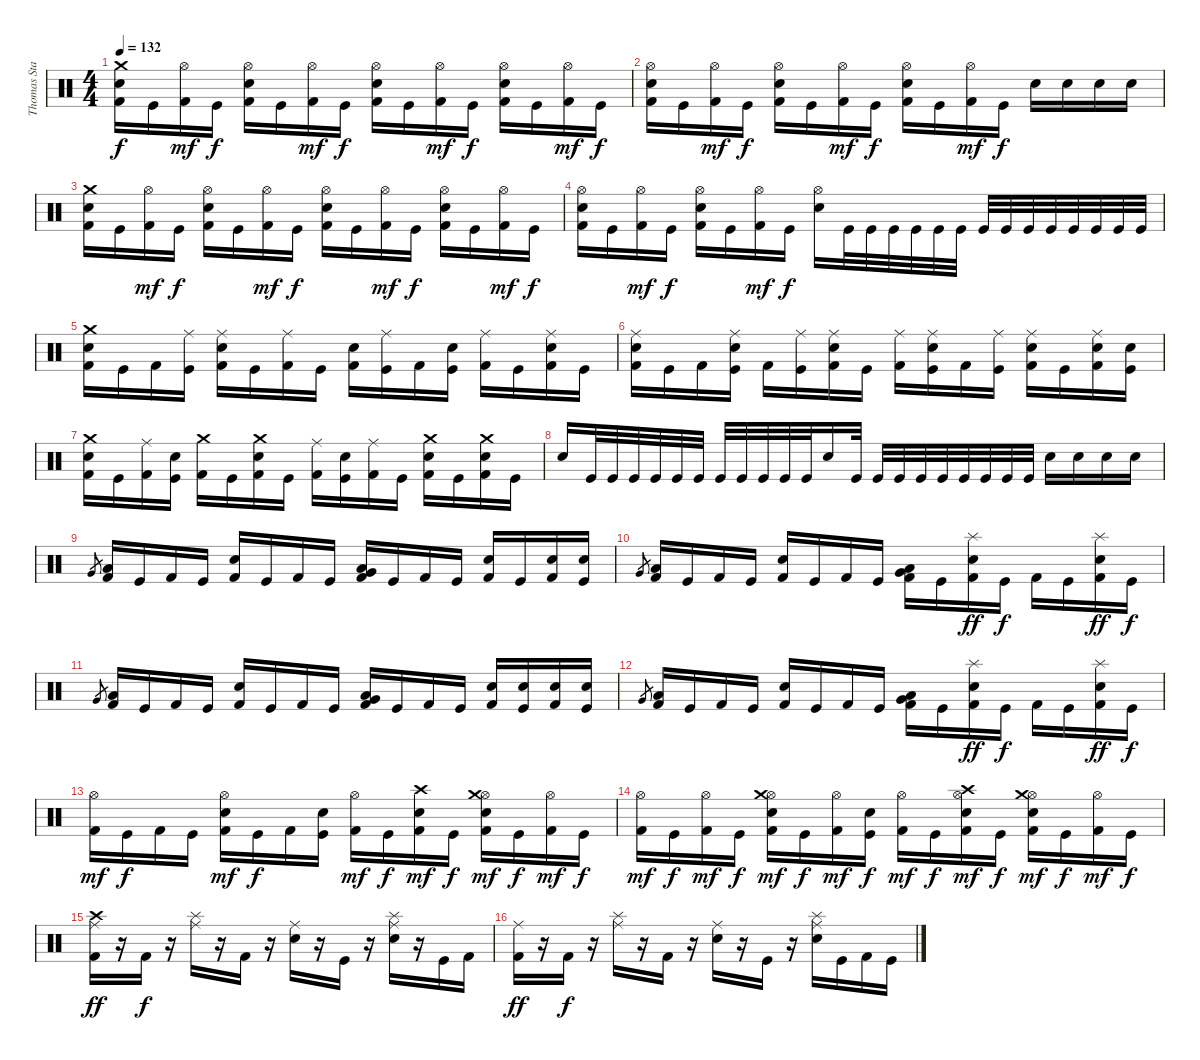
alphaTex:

\track ("Thomas Stauch" "Thomas Sta") {instrument percussion}
\staff {score}
\articulation defaults
\ts (4 4)
\tempo 132
\clef neutral
\ks c
("Crash medium (hit)" "Electric Snare (hit)" "Kick (hit) 2").16{dy f} "Kick (hit)".16 ("Hi-Hat (open)" "Kick (hit) 2").16{dy mf} "Kick (hit)".16{dy f} ("Hi-Hat (open)" "Electric Snare (hit)" "Kick (hit) 2").16 "Kick (hit)".16 ("Hi-Hat (open)" "Kick (hit) 2").16{dy mf} "Kick (hit)".16{dy f} ("Hi-Hat (open)" "Electric Snare (hit)" "Kick (hit) 2").16 "Kick (hit)".16 ("Hi-Hat (open)" "Kick (hit) 2").16{dy mf} "Kick (hit)".16{dy f} ("Hi-Hat (open)" "Electric Snare (hit)" "Kick (hit) 2").16 "Kick (hit)".16 ("Hi-Hat (open)" "Kick (hit) 2").16{dy mf} "Kick (hit)".16{dy f} |
("Hi-Hat (open)" "Electric Snare (hit)" "Kick (hit) 2").16 "Kick (hit)".16 ("Hi-Hat (open)" "Kick (hit) 2").16{dy mf} "Kick (hit)".16{dy f} ("Hi-Hat (open)" "Electric Snare (hit)" "Kick (hit) 2").16 "Kick (hit)".16 ("Hi-Hat (open)" "Kick (hit) 2").16{dy mf} "Kick (hit)".16{dy f} ("Hi-Hat (open)" "Electric Snare (hit)" "Kick (hit) 2").16 "Kick (hit)".16 ("Hi-Hat (open)" "Kick (hit) 2").16{dy mf} "Kick (hit)".16{dy f} "Electric Snare (hit)".16 "Electric Snare (hit)".16 "Electric Snare (hit)".16 "Electric Snare (hit)".16 |
("Crash medium (hit)" "Electric Snare (hit)" "Kick (hit) 2").16 "Kick (hit)".16 ("Hi-Hat (open)" "Kick (hit) 2").16{dy mf} "Kick (hit)".16{dy f} ("Hi-Hat (open)" "Electric Snare (hit)" "Kick (hit) 2").16 "Kick (hit)".16 ("Hi-Hat (open)" "Kick (hit) 2").16{dy mf} "Kick (hit)".16{dy f} ("Hi-Hat (open)" "Electric Snare (hit)" "Kick (hit) 2").16 "Kick (hit)".16 ("Hi-Hat (open)" "Kick (hit) 2").16{dy mf} "Kick (hit)".16{dy f} ("Hi-Hat (open)" "Electric Snare (hit)" "Kick (hit) 2").16 "Kick (hit)".16 ("Hi-Hat (open)" "Kick (hit) 2").16{dy mf} "Kick (hit)".16{dy f} |
("Hi-Hat (open)" "Electric Snare (hit)" "Kick (hit) 2").16 "Kick (hit)".16 ("Hi-Hat (open)" "Kick (hit) 2").16{dy mf} "Kick (hit)".16{dy f} ("Hi-Hat (open)" "Electric Snare (hit)" "Kick (hit) 2").16 "Kick (hit)".16 ("Hi-Hat (open)" "Kick (hit) 2").16{dy mf} "Kick (hit)".16{dy f} ("Hi-Hat (open)" "Electric Snare (hit)").16 "Kick (hit)".32 "Kick (hit)".32 "Kick (hit)".32 "Kick (hit)".32 "Kick (hit)".32 "Kick (hit)".32 "Kick (hit)".32 "Kick (hit)".32 "Kick (hit)".32 "Kick (hit)".32 "Kick (hit)".32 "Kick (hit)".32 "Kick (hit)".32 "Kick (hit)".32 |
("Crash medium (hit)" "Electric Snare (hit)" "Kick (hit) 2").16 "Kick (hit)".16 "Kick (hit) 2".16 ("Ride (middle)" "Kick (hit)").16 ("Ride (middle)" "Electric Snare (hit)" "Kick (hit) 2").16 "Kick (hit)".16 ("Ride (middle)" "Kick (hit) 2").16 "Kick (hit)".16 ("Electric Snare (hit)" "Kick (hit) 2").16 ("Ride (middle)" "Kick (hit)").16 "Kick (hit) 2".16 ("Electric Snare (hit)" "Kick (hit)").16 ("Ride (middle)" "Kick (hit) 2").16 "Kick (hit)".16 ("Ride (middle)" "Electric Snare (hit)" "Kick (hit) 2").16 "Kick (hit)".16 |
("Ride (middle)" "Electric Snare (hit)" "Kick (hit) 2").16 "Kick (hit)".16 "Kick (hit) 2".16 ("Ride (middle)" "Electric Snare (hit)" "Kick (hit)").16 "Kick (hit) 2".16 ("Ride (middle)" "Kick (hit)").16 ("Ride (middle)" "Electric Snare (hit)" "Kick (hit) 2").16 "Kick (hit)".16 ("Ride (middle)" "Kick (hit) 2").16 ("Ride (middle)" "Electric Snare (hit)" "Kick (hit)").16 "Kick (hit) 2".16 ("Ride (middle)" "Kick (hit)").16 ("Ride (middle)" "Electric Snare (hit)" "Kick (hit) 2").16 "Kick (hit)".16 ("Ride (middle)" "Electric Snare (hit)" "Kick (hit) 2").16 ("Electric Snare (hit)" "Kick (hit)").16 |
("Crash medium (hit)" "Electric Snare (hit)" "Kick (hit) 2").16 "Kick (hit)".16 ("Ride (middle)" "Kick (hit) 2").16 ("Electric Snare (hit)" "Kick (hit)").16 ("Crash medium (hit)" "Kick (hit) 2").16 "Kick (hit)".16 ("Crash medium (hit)" "Electric Snare (hit)" "Kick (hit) 2").16 "Kick (hit)".16 ("Ride (middle)" "Kick (hit) 2").16 ("Electric Snare (hit)" "Kick (hit)").16 ("Ride (middle)" "Kick (hit) 2").16 "Kick (hit)".16 ("Crash medium (hit)" "Electric Snare (hit)" "Kick (hit) 2").16 "Kick (hit)".16 ("Crash medium (hit)" "Electric Snare (hit)" "Kick (hit) 2").16 "Kick (hit)".16 |
"Electric Snare (hit)".16 "Kick (hit)".32 "Kick (hit)".32 "Kick (hit)".32 "Kick (hit)".32 "Kick (hit)".32 "Kick (hit)".32 "Kick (hit)".32 "Kick (hit)".32 "Kick (hit)".32 "Kick (hit)".32 "Kick (hit)".32 "Electric Snare (hit)".16 "Kick (hit)".32 "Kick (hit)".32 "Kick (hit)".32 "Kick (hit)".32 "Kick (hit)".32 "Kick (hit)".32 "Kick (hit)".32 "Kick (hit)".32 "Kick (hit)".32 "Electric Snare (hit)".16 "Electric Snare (hit)".16 "Electric Snare (hit)".16 "Electric Snare (hit)".16 |
"Very Low Tom (hit)".8{gr} ("Low Tom (hit)" "Kick (hit) 2").16 "Kick (hit)".16 "Kick (hit) 2".16 "Kick (hit)".16 ("Electric Snare (hit)" "Kick (hit) 2").16 "Kick (hit)".16 "Kick (hit) 2".16 "Kick (hit)".16 ("Very Low Tom (hit)" "Low Tom (hit)" "Kick (hit) 2").16 "Kick (hit)".16 "Kick (hit) 2".16 "Kick (hit)".16 ("Electric Snare (hit)" "Kick (hit) 2").16 "Kick (hit)".16 ("Electric Snare (hit)" "Kick (hit) 2").16 ("Electric Snare (hit)" "Kick (hit)").16 |
"Very Low Tom (hit)".8{gr} ("Low Tom (hit)" "Kick (hit) 2").16 "Kick (hit)".16 "Kick (hit) 2".16 "Kick (hit)".16 ("Electric Snare (hit)" "Kick (hit) 2").16 "Kick (hit)".16 "Kick (hit) 2".16 "Kick (hit)".16 ("Very Low Tom (hit)" "Low Tom (hit)" "Kick (hit) 2").16 "Kick (hit)".16 ("Splash (hit)" "Electric Snare (hit)" "Kick (hit) 2").16{dy ff} "Kick (hit)".16{dy f} "Kick (hit) 2".16 "Kick (hit)".16 ("Splash (hit)" "Electric Snare (hit)" "Kick (hit) 2").16{dy ff} "Kick (hit)".16{dy f} |
"Very Low Tom (hit)".8{gr} ("Low Tom (hit)" "Kick (hit) 2").16 "Kick (hit)".16 "Kick (hit) 2".16 "Kick (hit)".16 ("Electric Snare (hit)" "Kick (hit) 2").16 "Kick (hit)".16 "Kick (hit) 2".16 "Kick (hit)".16 ("Very Low Tom (hit)" "Low Tom (hit)" "Kick (hit) 2").16 "Kick (hit)".16 "Kick (hit) 2".16 "Kick (hit)".16 ("Electric Snare (hit)" "Kick (hit) 2").16 ("Electric Snare (hit)" "Kick (hit)").16 ("Electric Snare (hit)" "Kick (hit) 2").16 ("Electric Snare (hit)" "Kick (hit)").16 |
"Very Low Tom (hit)".8{gr} ("Low Tom (hit)" "Kick (hit) 2").16 "Kick (hit)".16 "Kick (hit) 2".16 "Kick (hit)".16 ("Electric Snare (hit)" "Kick (hit) 2").16 "Kick (hit)".16 "Kick (hit) 2".16 "Kick (hit)".16 ("Very Low Tom (hit)" "Low Tom (hit)" "Kick (hit) 2").16 "Kick (hit)".16 ("Splash (hit)" "Electric Snare (hit)" "Kick (hit) 2").16{dy ff} "Kick (hit)".16{dy f} "Kick (hit) 2".16 "Kick (hit)".16 ("Splash (hit)" "Electric Snare (hit)" "Kick (hit) 2").16{dy ff} "Kick (hit)".16{dy f} |
("Hi-Hat (open)" "Kick (hit) 2").16{dy mf} "Kick (hit)".16{dy f} "Kick (hit) 2".16 "Kick (hit)".16 ("Hi-Hat (open)" "Electric Snare (hit)" "Kick (hit) 2").16{dy mf} "Kick (hit)".16{dy f} "Kick (hit) 2".16 ("Electric Snare (hit)" "Kick (hit)").16 ("Hi-Hat (open)" "Kick (hit) 2").16{dy mf} "Kick (hit)".16{dy f} ("Crash high (hit)" "Electric Snare (hit)" "Kick (hit) 2").16{dy mf} "Kick (hit)".16{dy f} ("Hi-Hat (open)" "Crash medium (hit)" "Electric Snare (hit)" "Kick (hit) 2").16{dy mf} "Kick (hit)".16{dy f} ("Hi-Hat (open)" "Kick (hit) 2").16{dy mf} "Kick (hit)".16{dy f} |
("Hi-Hat (open)" "Kick (hit) 2").16{dy mf} "Kick (hit)".16{dy f} ("Hi-Hat (open)" "Kick (hit) 2").16{dy mf} "Kick (hit)".16{dy f} ("Hi-Hat (open)" "Crash medium (hit)" "Electric Snare (hit)" "Kick (hit) 2").16{dy mf} "Kick (hit)".16{dy f} ("Hi-Hat (open)" "Kick (hit) 2").16{dy mf} ("Electric Snare (hit)" "Kick (hit)").16{dy f} ("Hi-Hat (open)" "Kick (hit) 2").16{dy mf} "Kick (hit)".16{dy f} ("Hi-Hat (open)" "Crash high (hit)" "Electric Snare (hit)" "Kick (hit) 2").16{dy mf} "Kick (hit)".16{dy f} ("Hi-Hat (open)" "Crash medium (hit)" "Electric Snare (hit)" "Kick (hit) 2").16{dy mf} "Kick (hit)".16{dy f} ("Hi-Hat (open)" "Kick (hit) 2").16{dy mf} "Kick (hit)".16{dy f} |
("Ride (middle)" "Crash high (hit)" "Kick (hit) 2").16{dy ff} r.16 "Kick (hit) 2".16{dy f} r.16 ("Ride (middle)" "Splash (hit)").16 r.16 "Kick (hit) 2".16 r.16 ("Ride (middle)" "Electric Snare (hit)").16 r.16 "Kick (hit)".16 r.16 ("Ride (middle)" "Splash (hit)" "Electric Snare (hit)").16 r.16 "Kick (hit)".16 "Kick (hit) 2".16 |
("Ride (middle)" "Kick (hit) 2").16{dy ff} r.16 "Kick (hit) 2".16{dy f} r.16 ("Ride (middle)" "Splash (hit)").16 r.16 "Kick (hit) 2".16 r.16 ("Ride (middle)" "Electric Snare (hit)").16 r.16 "Kick (hit)".16 r.16 ("Ride (middle)" "Splash (hit)" "Electric Snare (hit)").16 "Kick (hit)".16 "Kick (hit) 2".16 "Kick (hit)".16
